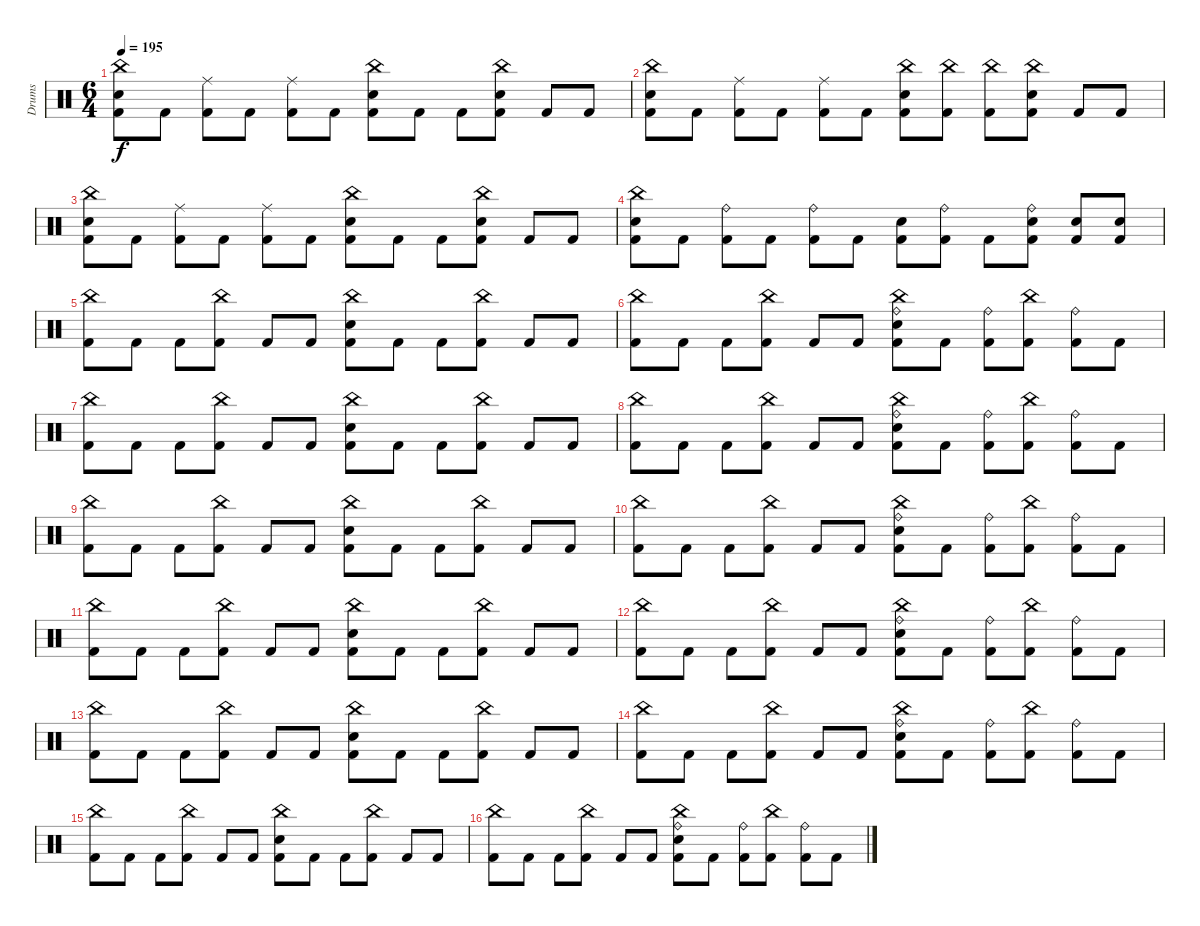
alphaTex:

\track ("Drums" "Drums") {instrument percussion}
\staff {score}
\articulation defaults
\ts (6 4)
\tempo 195
\clef neutral
\ks c
("China (hit)" "Electric Snare (hit)" "Kick (hit) 2").8{dy f} "Kick (hit) 2".8 ("Ride (middle)" "Kick (hit) 2").8 "Kick (hit) 2".8 ("Ride (middle)" "Kick (hit) 2").8 "Kick (hit) 2".8 ("China (hit)" "Electric Snare (hit)" "Kick (hit) 2").8 "Kick (hit) 2".8 "Kick (hit) 2".8 ("China (hit)" "Electric Snare (hit)" "Kick (hit) 2").8 "Kick (hit) 2".8 "Kick (hit) 2".8 |
("China (hit)" "Electric Snare (hit)" "Kick (hit) 2").8 "Kick (hit) 2".8 ("Ride (middle)" "Kick (hit) 2").8 "Kick (hit) 2".8 ("Ride (middle)" "Kick (hit) 2").8 "Kick (hit) 2".8 ("China (hit)" "Electric Snare (hit)" "Kick (hit) 2").8 ("China (hit)" "Kick (hit) 2").8 ("China (hit)" "Kick (hit) 2").8 ("China (hit)" "Electric Snare (hit)" "Kick (hit) 2").8 "Kick (hit) 2".8 "Kick (hit) 2".8 |
("China (hit)" "Electric Snare (hit)" "Kick (hit) 2").8 "Kick (hit) 2".8 ("Ride (middle)" "Kick (hit) 2").8 "Kick (hit) 2".8 ("Ride (middle)" "Kick (hit) 2").8 "Kick (hit) 2".8 ("China (hit)" "Electric Snare (hit)" "Kick (hit) 2").8 "Kick (hit) 2".8 "Kick (hit) 2".8 ("China (hit)" "Electric Snare (hit)" "Kick (hit) 2").8 "Kick (hit) 2".8 "Kick (hit) 2".8 |
("China (hit)" "Electric Snare (hit)" "Kick (hit) 2").8 "Kick (hit) 2".8 ("Ride (bell)" "Kick (hit) 2").8 "Kick (hit) 2".8 ("Ride (bell)" "Kick (hit) 2").8 "Kick (hit) 2".8 ("Electric Snare (hit)" "Kick (hit) 2").8 ("Ride (bell)" "Kick (hit) 2").8 "Kick (hit) 2".8 ("Ride (bell)" "Electric Snare (hit)" "Kick (hit) 2").8 ("Electric Snare (hit)" "Kick (hit) 2").8 ("Electric Snare (hit)" "Kick (hit) 2").8 |
("China (hit)" "Kick (hit) 2").8 "Kick (hit) 2".8 "Kick (hit) 2".8 ("China (hit)" "Kick (hit) 2").8 "Kick (hit) 2".8 "Kick (hit) 2".8 ("China (hit)" "Electric Snare (hit)" "Kick (hit) 2").8 "Kick (hit) 2".8 "Kick (hit) 2".8 ("China (hit)" "Kick (hit) 2").8 "Kick (hit) 2".8 "Kick (hit) 2".8 |
("China (hit)" "Kick (hit) 2").8 "Kick (hit) 2".8 "Kick (hit) 2".8 ("China (hit)" "Kick (hit) 2").8 "Kick (hit) 2".8 "Kick (hit) 2".8 ("China (hit)" "Ride (bell)" "Electric Snare (hit)" "Kick (hit) 2").8 "Kick (hit) 2".8 ("Ride (bell)" "Kick (hit) 2").8 ("China (hit)" "Kick (hit) 2").8 ("Ride (bell)" "Kick (hit) 2").8 "Kick (hit) 2".8 |
("China (hit)" "Kick (hit) 2").8 "Kick (hit) 2".8 "Kick (hit) 2".8 ("China (hit)" "Kick (hit) 2").8 "Kick (hit) 2".8 "Kick (hit) 2".8 ("China (hit)" "Electric Snare (hit)" "Kick (hit) 2").8 "Kick (hit) 2".8 "Kick (hit) 2".8 ("China (hit)" "Kick (hit) 2").8 "Kick (hit) 2".8 "Kick (hit) 2".8 |
("China (hit)" "Kick (hit) 2").8 "Kick (hit) 2".8 "Kick (hit) 2".8 ("China (hit)" "Kick (hit) 2").8 "Kick (hit) 2".8 "Kick (hit) 2".8 ("China (hit)" "Ride (bell)" "Electric Snare (hit)" "Kick (hit) 2").8 "Kick (hit) 2".8 ("Ride (bell)" "Kick (hit) 2").8 ("China (hit)" "Kick (hit) 2").8 ("Ride (bell)" "Kick (hit) 2").8 "Kick (hit) 2".8 |
("China (hit)" "Kick (hit) 2").8 "Kick (hit) 2".8 "Kick (hit) 2".8 ("China (hit)" "Kick (hit) 2").8 "Kick (hit) 2".8 "Kick (hit) 2".8 ("China (hit)" "Electric Snare (hit)" "Kick (hit) 2").8 "Kick (hit) 2".8 "Kick (hit) 2".8 ("China (hit)" "Kick (hit) 2").8 "Kick (hit) 2".8 "Kick (hit) 2".8 |
("China (hit)" "Kick (hit) 2").8 "Kick (hit) 2".8 "Kick (hit) 2".8 ("China (hit)" "Kick (hit) 2").8 "Kick (hit) 2".8 "Kick (hit) 2".8 ("China (hit)" "Ride (bell)" "Electric Snare (hit)" "Kick (hit) 2").8 "Kick (hit) 2".8 ("Ride (bell)" "Kick (hit) 2").8 ("China (hit)" "Kick (hit) 2").8 ("Ride (bell)" "Kick (hit) 2").8 "Kick (hit) 2".8 |
("China (hit)" "Kick (hit) 2").8 "Kick (hit) 2".8 "Kick (hit) 2".8 ("China (hit)" "Kick (hit) 2").8 "Kick (hit) 2".8 "Kick (hit) 2".8 ("China (hit)" "Electric Snare (hit)" "Kick (hit) 2").8 "Kick (hit) 2".8 "Kick (hit) 2".8 ("China (hit)" "Kick (hit) 2").8 "Kick (hit) 2".8 "Kick (hit) 2".8 |
("China (hit)" "Kick (hit) 2").8 "Kick (hit) 2".8 "Kick (hit) 2".8 ("China (hit)" "Kick (hit) 2").8 "Kick (hit) 2".8 "Kick (hit) 2".8 ("China (hit)" "Ride (bell)" "Electric Snare (hit)" "Kick (hit) 2").8 "Kick (hit) 2".8 ("Ride (bell)" "Kick (hit) 2").8 ("China (hit)" "Kick (hit) 2").8 ("Ride (bell)" "Kick (hit) 2").8 "Kick (hit) 2".8 |
("China (hit)" "Kick (hit) 2").8 "Kick (hit) 2".8 "Kick (hit) 2".8 ("China (hit)" "Kick (hit) 2").8 "Kick (hit) 2".8 "Kick (hit) 2".8 ("China (hit)" "Electric Snare (hit)" "Kick (hit) 2").8 "Kick (hit) 2".8 "Kick (hit) 2".8 ("China (hit)" "Kick (hit) 2").8 "Kick (hit) 2".8 "Kick (hit) 2".8 |
("China (hit)" "Kick (hit) 2").8 "Kick (hit) 2".8 "Kick (hit) 2".8 ("China (hit)" "Kick (hit) 2").8 "Kick (hit) 2".8 "Kick (hit) 2".8 ("China (hit)" "Ride (bell)" "Electric Snare (hit)" "Kick (hit) 2").8 "Kick (hit) 2".8 ("Ride (bell)" "Kick (hit) 2").8 ("China (hit)" "Kick (hit) 2").8 ("Ride (bell)" "Kick (hit) 2").8 "Kick (hit) 2".8 |
("China (hit)" "Kick (hit) 2").8 "Kick (hit) 2".8 "Kick (hit) 2".8 ("China (hit)" "Kick (hit) 2").8 "Kick (hit) 2".8 "Kick (hit) 2".8 ("China (hit)" "Electric Snare (hit)" "Kick (hit) 2").8 "Kick (hit) 2".8 "Kick (hit) 2".8 ("China (hit)" "Kick (hit) 2").8 "Kick (hit) 2".8 "Kick (hit) 2".8 |
("China (hit)" "Kick (hit) 2").8 "Kick (hit) 2".8 "Kick (hit) 2".8 ("China (hit)" "Kick (hit) 2").8 "Kick (hit) 2".8 "Kick (hit) 2".8 ("China (hit)" "Ride (bell)" "Electric Snare (hit)" "Kick (hit) 2").8 "Kick (hit) 2".8 ("Ride (bell)" "Kick (hit) 2").8 ("China (hit)" "Kick (hit) 2").8 ("Ride (bell)" "Kick (hit) 2").8 "Kick (hit) 2".8
